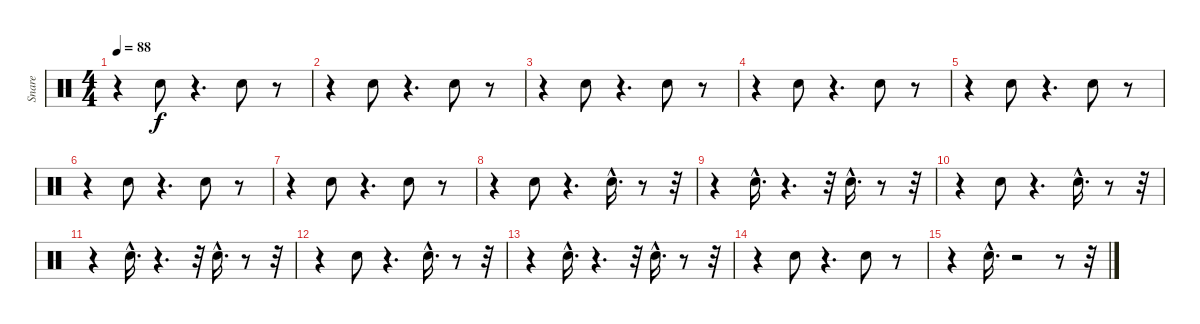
\track ("Snare" "Snare") {instrument percussion}
\staff {score}
\articulation defaults
\ts (4 4)
\tempo 88
\clef neutral
\ks c
r.4{dy f} "Snare (hit) 2".8 r.4{d} "Snare (hit) 2".8 r.8 |
r.4 "Snare (hit) 2".8 r.4{d} "Snare (hit) 2".8 r.8 |
r.4 "Snare (hit) 2".8 r.4{d} "Snare (hit) 2".8 r.8 |
r.4 "Snare (hit) 2".8 r.4{d} "Snare (hit) 2".8 r.8 |
r.4 "Snare (hit) 2".8 r.4{d} "Snare (hit) 2".8 r.8 |
r.4 "Snare (hit) 2".8 r.4{d} "Snare (hit) 2".8 r.8 |
r.4 "Snare (hit) 2".8 r.4{d} "Snare (hit) 2".8 r.8 |
r.4 "Snare (hit) 2".8 r.4{d} "Snare (hit) 2"{hac}.16{d} r.8 r.32 |
r.4 "Snare (hit) 2"{hac}.16{d} r.4{d} r.32 "Snare (hit) 2"{hac}.16{d} r.8 r.32 |
r.4 "Snare (hit) 2".8 r.4{d} "Snare (hit) 2"{hac}.16{d} r.8 r.32 |
r.4 "Snare (hit) 2"{hac}.16{d} r.4{d} r.32 "Snare (hit) 2"{hac}.16{d} r.8 r.32 |
r.4 "Snare (hit) 2".8 r.4{d} "Snare (hit) 2"{hac}.16{d} r.8 r.32 |
r.4 "Snare (hit) 2"{hac}.16{d} r.4{d} r.32 "Snare (hit) 2"{hac}.16{d} r.8 r.32 |
r.4 "Snare (hit) 2".8 r.4{d} "Snare (hit) 2".8 r.8 |
r.4 "Snare (hit) 2"{hac}.16{d} r.2 r.8 r.32
